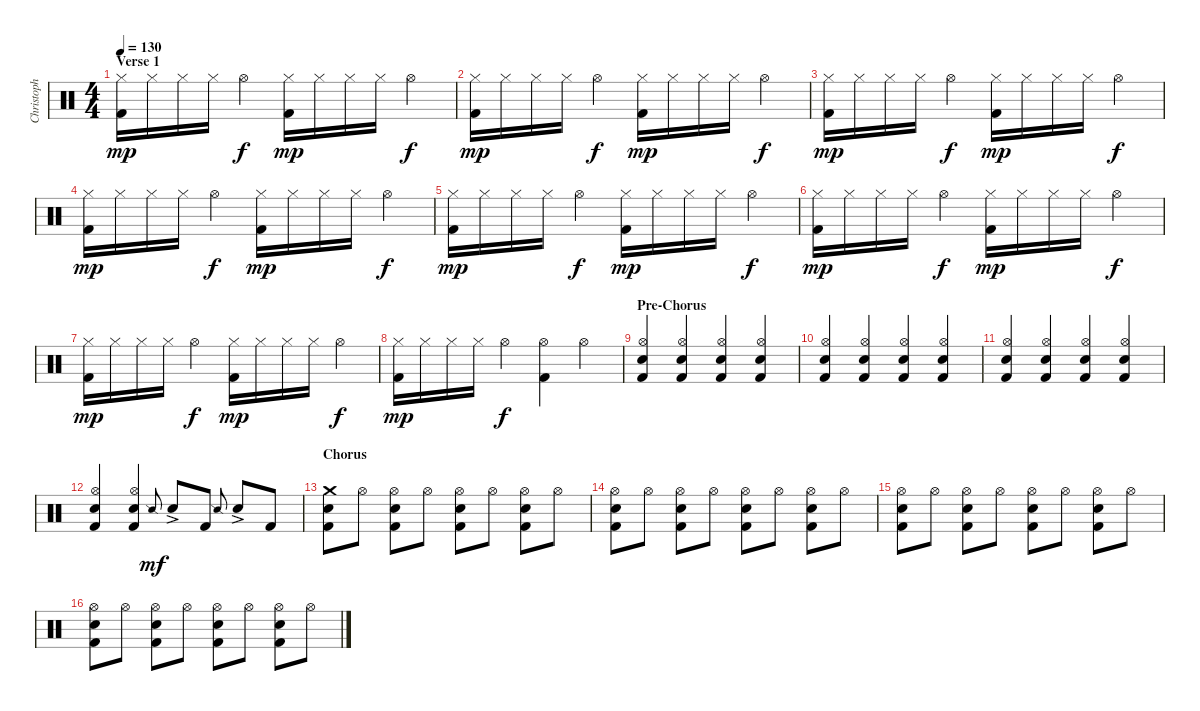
\track ("Christoph Schneider" "Christoph ") {instrument percussion}
\staff {score}
\articulation defaults
\ts (4 4)
\section ("" "Verse 1")
\tempo 130
\clef neutral
\ks c
("Hi-Hat (closed)" "Kick (hit) 2").16{dy mp} "Hi-Hat (closed)".16 "Hi-Hat (closed)".16 "Hi-Hat (closed)".16 "Hi-Hat (open)".4{dy f} ("Hi-Hat (closed)" "Kick (hit) 2").16{dy mp} "Hi-Hat (closed)".16 "Hi-Hat (closed)".16 "Hi-Hat (closed)".16 "Hi-Hat (open)".4{dy f} |
("Hi-Hat (closed)" "Kick (hit) 2").16{dy mp} "Hi-Hat (closed)".16 "Hi-Hat (closed)".16 "Hi-Hat (closed)".16 "Hi-Hat (open)".4{dy f} ("Hi-Hat (closed)" "Kick (hit) 2").16{dy mp} "Hi-Hat (closed)".16 "Hi-Hat (closed)".16 "Hi-Hat (closed)".16 "Hi-Hat (open)".4{dy f} |
("Hi-Hat (closed)" "Kick (hit) 2").16{dy mp} "Hi-Hat (closed)".16 "Hi-Hat (closed)".16 "Hi-Hat (closed)".16 "Hi-Hat (open)".4{dy f} ("Hi-Hat (closed)" "Kick (hit) 2").16{dy mp} "Hi-Hat (closed)".16 "Hi-Hat (closed)".16 "Hi-Hat (closed)".16 "Hi-Hat (open)".4{dy f} |
("Hi-Hat (closed)" "Kick (hit) 2").16{dy mp} "Hi-Hat (closed)".16 "Hi-Hat (closed)".16 "Hi-Hat (closed)".16 "Hi-Hat (open)".4{dy f} ("Hi-Hat (closed)" "Kick (hit) 2").16{dy mp} "Hi-Hat (closed)".16 "Hi-Hat (closed)".16 "Hi-Hat (closed)".16 "Hi-Hat (open)".4{dy f} |
("Hi-Hat (closed)" "Kick (hit) 2").16{dy mp} "Hi-Hat (closed)".16 "Hi-Hat (closed)".16 "Hi-Hat (closed)".16 "Hi-Hat (open)".4{dy f} ("Hi-Hat (closed)" "Kick (hit) 2").16{dy mp} "Hi-Hat (closed)".16 "Hi-Hat (closed)".16 "Hi-Hat (closed)".16 "Hi-Hat (open)".4{dy f} |
("Hi-Hat (closed)" "Kick (hit) 2").16{dy mp} "Hi-Hat (closed)".16 "Hi-Hat (closed)".16 "Hi-Hat (closed)".16 "Hi-Hat (open)".4{dy f} ("Hi-Hat (closed)" "Kick (hit) 2").16{dy mp} "Hi-Hat (closed)".16 "Hi-Hat (closed)".16 "Hi-Hat (closed)".16 "Hi-Hat (open)".4{dy f} |
("Hi-Hat (closed)" "Kick (hit) 2").16{dy mp} "Hi-Hat (closed)".16 "Hi-Hat (closed)".16 "Hi-Hat (closed)".16 "Hi-Hat (open)".4{dy f} ("Hi-Hat (closed)" "Kick (hit) 2").16{dy mp} "Hi-Hat (closed)".16 "Hi-Hat (closed)".16 "Hi-Hat (closed)".16 "Hi-Hat (open)".4{dy f} |
("Hi-Hat (closed)" "Kick (hit) 2").16{dy mp} "Hi-Hat (closed)".16 "Hi-Hat (closed)".16 "Hi-Hat (closed)".16 "Hi-Hat (open)".4{dy f} ("Hi-Hat (open)" "Kick (hit) 2").4 "Hi-Hat (open)".4 |
\section ("" "Pre-Chorus")
("Hi-Hat (open)" "Hand Clap (hit)" "Kick (hit) 2").4 ("Hi-Hat (open)" "Hand Clap (hit)" "Kick (hit) 2").4 ("Hi-Hat (open)" "Hand Clap (hit)" "Kick (hit) 2").4 ("Hi-Hat (open)" "Hand Clap (hit)" "Kick (hit) 2").4 |
("Hi-Hat (open)" "Hand Clap (hit)" "Kick (hit) 2").4 ("Hi-Hat (open)" "Hand Clap (hit)" "Kick (hit) 2").4 ("Hi-Hat (open)" "Hand Clap (hit)" "Kick (hit) 2").4 ("Hi-Hat (open)" "Hand Clap (hit)" "Kick (hit) 2").4 |
("Hi-Hat (open)" "Hand Clap (hit)" "Kick (hit) 2").4 ("Hi-Hat (open)" "Hand Clap (hit)" "Kick (hit) 2").4 ("Hi-Hat (open)" "Hand Clap (hit)" "Kick (hit) 2").4 ("Hi-Hat (open)" "Hand Clap (hit)" "Kick (hit) 2").4 |
("Hi-Hat (open)" "Hand Clap (hit)" "Kick (hit) 2").4 ("Hi-Hat (open)" "Hand Clap (hit)" "Kick (hit) 2").4 "Snare (side stick) 2".8{gr onbeat dy mf} "Snare (hit) 2"{ac}.8 "Kick (hit) 2".8 "Snare (side stick) 2".8{gr onbeat} "Snare (hit) 2"{ac}.8 "Kick (hit) 2".8 |
\section ("" "Chorus")
("Crash medium (hit)" "Snare (hit) 2" "Kick (hit) 2").8 "Hi-Hat (open)".8 ("Hi-Hat (open)" "Snare (hit) 2" "Kick (hit) 2").8 "Hi-Hat (open)".8 ("Hi-Hat (open)" "Snare (hit) 2" "Kick (hit) 2").8 "Hi-Hat (open)".8 ("Hi-Hat (open)" "Snare (hit) 2" "Kick (hit) 2").8 "Hi-Hat (open)".8 |
("Hi-Hat (open)" "Snare (hit) 2" "Kick (hit) 2").8 "Hi-Hat (open)".8 ("Hi-Hat (open)" "Snare (hit) 2" "Kick (hit) 2").8 "Hi-Hat (open)".8 ("Hi-Hat (open)" "Snare (hit) 2" "Kick (hit) 2").8 "Hi-Hat (open)".8 ("Hi-Hat (open)" "Snare (hit) 2" "Kick (hit) 2").8 "Hi-Hat (open)".8 |
("Hi-Hat (open)" "Snare (hit) 2" "Kick (hit) 2").8 "Hi-Hat (open)".8 ("Hi-Hat (open)" "Snare (hit) 2" "Kick (hit) 2").8 "Hi-Hat (open)".8 ("Hi-Hat (open)" "Snare (hit) 2" "Kick (hit) 2").8 "Hi-Hat (open)".8 ("Hi-Hat (open)" "Snare (hit) 2" "Kick (hit) 2").8 "Hi-Hat (open)".8 |
("Hi-Hat (open)" "Snare (hit) 2" "Kick (hit) 2").8 "Hi-Hat (open)".8 ("Hi-Hat (open)" "Snare (hit) 2" "Kick (hit) 2").8 "Hi-Hat (open)".8 ("Hi-Hat (open)" "Snare (hit) 2" "Kick (hit) 2").8 "Hi-Hat (open)".8 ("Hi-Hat (open)" "Snare (hit) 2" "Kick (hit) 2").8 "Hi-Hat (open)".8
